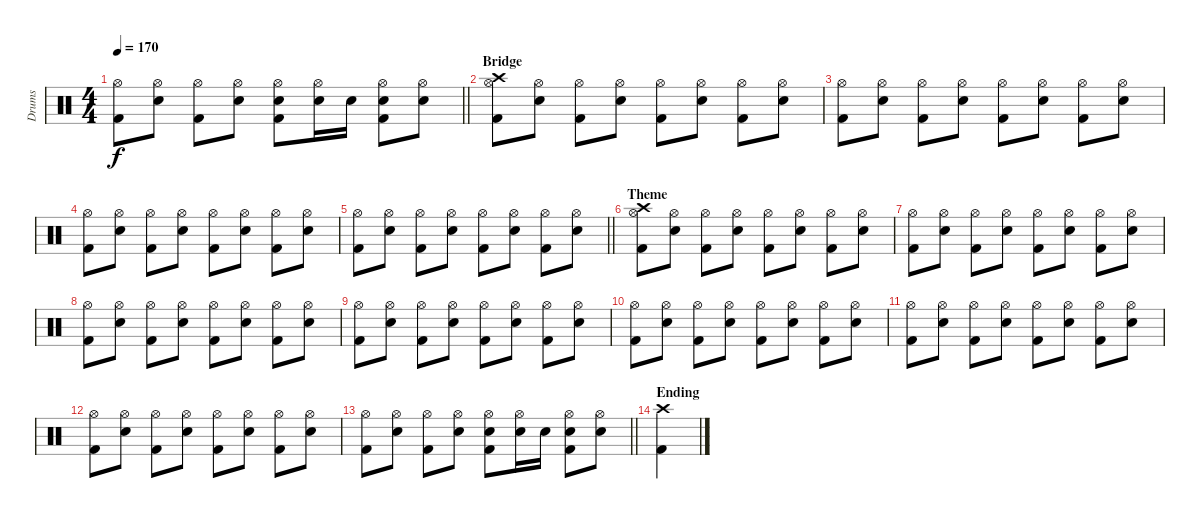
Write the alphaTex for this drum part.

\track ("Drums" "Drums") {instrument percussion}
\staff {score}
\articulation defaults
\ts (4 4)
\tempo 170
\clef neutral
\barLineRight lightlight
\ks c
("Hi-Hat (open)" "Kick (hit) 2").8{dy f} ("Hi-Hat (open)" "Snare (hit) 2").8 ("Hi-Hat (open)" "Kick (hit) 2").8 ("Hi-Hat (open)" "Snare (hit) 2").8 ("Hi-Hat (open)" "Snare (hit) 2" "Kick (hit) 2").8 ("Hi-Hat (open)" "Snare (hit) 2").16 "Snare (hit) 2".16 ("Hi-Hat (open)" "Snare (hit) 2" "Kick (hit) 2").8 ("Hi-Hat (open)" "Snare (hit) 2").8 |
\section ("" "Bridge")
("Hi-Hat (open)" "Crash high (hit)" "Kick (hit) 2").8 ("Hi-Hat (open)" "Snare (hit) 2").8 ("Hi-Hat (open)" "Kick (hit) 2").8 ("Hi-Hat (open)" "Snare (hit) 2").8 ("Hi-Hat (open)" "Kick (hit) 2").8 ("Hi-Hat (open)" "Snare (hit) 2").8 ("Hi-Hat (open)" "Kick (hit) 2").8 ("Hi-Hat (open)" "Snare (hit) 2").8 |
("Hi-Hat (open)" "Kick (hit) 2").8 ("Hi-Hat (open)" "Snare (hit) 2").8 ("Hi-Hat (open)" "Kick (hit) 2").8 ("Hi-Hat (open)" "Snare (hit) 2").8 ("Hi-Hat (open)" "Kick (hit) 2").8 ("Hi-Hat (open)" "Snare (hit) 2").8 ("Hi-Hat (open)" "Kick (hit) 2").8 ("Hi-Hat (open)" "Snare (hit) 2").8 |
("Hi-Hat (open)" "Kick (hit) 2").8 ("Hi-Hat (open)" "Snare (hit) 2").8 ("Hi-Hat (open)" "Kick (hit) 2").8 ("Hi-Hat (open)" "Snare (hit) 2").8 ("Hi-Hat (open)" "Kick (hit) 2").8 ("Hi-Hat (open)" "Snare (hit) 2").8 ("Hi-Hat (open)" "Kick (hit) 2").8 ("Hi-Hat (open)" "Snare (hit) 2").8 |
\barLineRight lightlight
("Hi-Hat (open)" "Kick (hit) 2").8 ("Hi-Hat (open)" "Snare (hit) 2").8 ("Hi-Hat (open)" "Kick (hit) 2").8 ("Hi-Hat (open)" "Snare (hit) 2").8 ("Hi-Hat (open)" "Kick (hit) 2").8 ("Hi-Hat (open)" "Snare (hit) 2").8 ("Hi-Hat (open)" "Kick (hit) 2").8 ("Hi-Hat (open)" "Snare (hit) 2").8 |
\section ("" "Theme")
("Hi-Hat (open)" "Crash high (hit)" "Kick (hit) 2").8 ("Hi-Hat (open)" "Snare (hit) 2").8 ("Hi-Hat (open)" "Kick (hit) 2").8 ("Hi-Hat (open)" "Snare (hit) 2").8 ("Hi-Hat (open)" "Kick (hit) 2").8 ("Hi-Hat (open)" "Snare (hit) 2").8 ("Hi-Hat (open)" "Kick (hit) 2").8 ("Hi-Hat (open)" "Snare (hit) 2").8 |
("Hi-Hat (open)" "Kick (hit) 2").8 ("Hi-Hat (open)" "Snare (hit) 2").8 ("Hi-Hat (open)" "Kick (hit) 2").8 ("Hi-Hat (open)" "Snare (hit) 2").8 ("Hi-Hat (open)" "Kick (hit) 2").8 ("Hi-Hat (open)" "Snare (hit) 2").8 ("Hi-Hat (open)" "Kick (hit) 2").8 ("Hi-Hat (open)" "Snare (hit) 2").8 |
("Hi-Hat (open)" "Kick (hit) 2").8 ("Hi-Hat (open)" "Snare (hit) 2").8 ("Hi-Hat (open)" "Kick (hit) 2").8 ("Hi-Hat (open)" "Snare (hit) 2").8 ("Hi-Hat (open)" "Kick (hit) 2").8 ("Hi-Hat (open)" "Snare (hit) 2").8 ("Hi-Hat (open)" "Kick (hit) 2").8 ("Hi-Hat (open)" "Snare (hit) 2").8 |
("Hi-Hat (open)" "Kick (hit) 2").8 ("Hi-Hat (open)" "Snare (hit) 2").8 ("Hi-Hat (open)" "Kick (hit) 2").8 ("Hi-Hat (open)" "Snare (hit) 2").8 ("Hi-Hat (open)" "Kick (hit) 2").8 ("Hi-Hat (open)" "Snare (hit) 2").8 ("Hi-Hat (open)" "Kick (hit) 2").8 ("Hi-Hat (open)" "Snare (hit) 2").8 |
("Hi-Hat (open)" "Kick (hit) 2").8 ("Hi-Hat (open)" "Snare (hit) 2").8 ("Hi-Hat (open)" "Kick (hit) 2").8 ("Hi-Hat (open)" "Snare (hit) 2").8 ("Hi-Hat (open)" "Kick (hit) 2").8 ("Hi-Hat (open)" "Snare (hit) 2").8 ("Hi-Hat (open)" "Kick (hit) 2").8 ("Hi-Hat (open)" "Snare (hit) 2").8 |
("Hi-Hat (open)" "Kick (hit) 2").8 ("Hi-Hat (open)" "Snare (hit) 2").8 ("Hi-Hat (open)" "Kick (hit) 2").8 ("Hi-Hat (open)" "Snare (hit) 2").8 ("Hi-Hat (open)" "Kick (hit) 2").8 ("Hi-Hat (open)" "Snare (hit) 2").8 ("Hi-Hat (open)" "Kick (hit) 2").8 ("Hi-Hat (open)" "Snare (hit) 2").8 |
("Hi-Hat (open)" "Kick (hit) 2").8 ("Hi-Hat (open)" "Snare (hit) 2").8 ("Hi-Hat (open)" "Kick (hit) 2").8 ("Hi-Hat (open)" "Snare (hit) 2").8 ("Hi-Hat (open)" "Kick (hit) 2").8 ("Hi-Hat (open)" "Snare (hit) 2").8 ("Hi-Hat (open)" "Kick (hit) 2").8 ("Hi-Hat (open)" "Snare (hit) 2").8 |
\barLineRight lightlight
("Hi-Hat (open)" "Kick (hit) 2").8 ("Hi-Hat (open)" "Snare (hit) 2").8 ("Hi-Hat (open)" "Kick (hit) 2").8 ("Hi-Hat (open)" "Snare (hit) 2").8 ("Hi-Hat (open)" "Snare (hit) 2" "Kick (hit) 2").8 ("Hi-Hat (open)" "Snare (hit) 2").16 "Snare (hit) 2".16 ("Hi-Hat (open)" "Snare (hit) 2" "Kick (hit) 2").8 ("Hi-Hat (open)" "Snare (hit) 2").8 |
\section ("" "Ending")
("Crash high (hit)" "Kick (hit) 2").4
